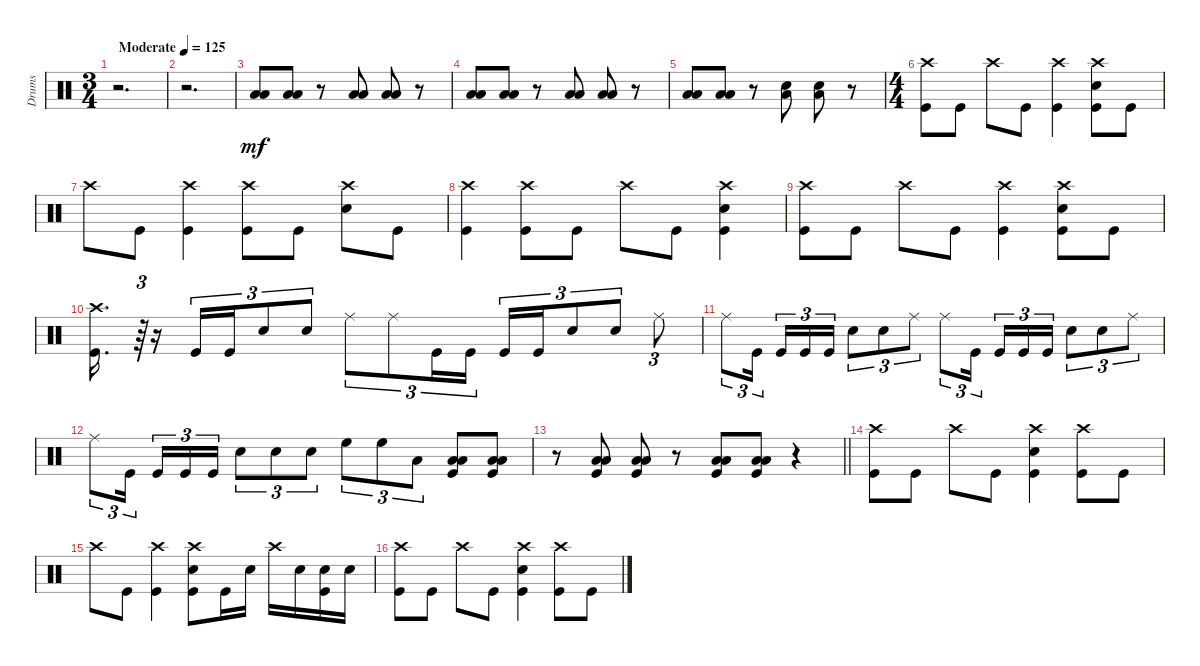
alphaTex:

\track ("Drums" "Drums") {instrument percussion}
\staff {score}
\articulation defaults
\ts (3 4)
\tempo (125 "Moderate")
\clef neutral
\ks c
r.2{d dy mf} |
r.2{d} |
("Low Tom (hit)" "Low Floor Tom (hit)").8 ("Low Tom (hit)" "Low Floor Tom (hit)").8 r.8 ("Low Tom (hit)" "Low Floor Tom (hit)").8 ("Low Tom (hit)" "Low Floor Tom (hit)").8 r.8 |
("Low Tom (hit)" "Low Floor Tom (hit)").8 ("Low Tom (hit)" "Low Floor Tom (hit)").8 r.8 ("Low Tom (hit)" "Low Floor Tom (hit)").8 ("Low Tom (hit)" "Low Floor Tom (hit)").8 r.8 |
("Low Tom (hit)" "Low Floor Tom (hit)").8 ("Low Tom (hit)" "Low Floor Tom (hit)").8 r.8 ("Low Floor Tom (hit)" "Snare (hit) 2").8 ("Low Floor Tom (hit)" "Snare (hit) 2").8 r.8 |
\ts (4 4)
("Kick (hit)" "Crash high (hit)").8 "Kick (hit)".8 "Crash high (hit)".8 "Kick (hit)".8 ("Crash high (hit)" "Kick (hit)").4 ("Kick (hit)" "Snare (hit) 2" "Crash high (hit)").8 "Kick (hit)".8 |
"Crash high (hit)".8 "Kick (hit)".8 ("Crash high (hit)" "Kick (hit)").4 ("Crash high (hit)" "Kick (hit)").8 "Kick (hit)".8 ("Snare (hit) 2" "Crash high (hit)").8 "Kick (hit)".8 |
("Crash high (hit)" "Kick (hit)").4 ("Crash high (hit)" "Kick (hit)").8 "Kick (hit)".8 "Crash high (hit)".8 "Kick (hit)".8 ("Snare (hit) 2" "Crash high (hit)" "Kick (hit)").4 |
("Crash high (hit)" "Kick (hit)").8 "Kick (hit)".8 "Crash high (hit)".8 "Kick (hit)".8 ("Crash high (hit)" "Kick (hit)").4 ("Snare (hit) 2" "Crash high (hit)" "Kick (hit)").8 "Kick (hit)".8 |
("Crash high (hit)" "Kick (hit)").16{d} r.64{tu (3 2)} r.16 "Kick (hit)".16{tu (3 2)} "Kick (hit)".16{tu (3 2)} "Snare (hit) 2".8{tu (3 2)} "Snare (hit) 2".8{tu (3 2)} "Ride (middle)".8{tu (3 2)} "Ride (middle)".8{tu (3 2)} "Kick (hit)".16{tu (3 2)} "Kick (hit)".16{tu (3 2) beam splitsecondary} "Kick (hit)".16{tu (3 2)} "Kick (hit)".16{tu (3 2)} "Snare (hit) 2".8{tu (3 2)} "Snare (hit) 2".8{tu (3 2)} "Ride (middle)".8{tu (3 2)} |
"Ride (middle)".8{tu (3 2)} "Kick (hit)".16{tu (3 2) beam splitsecondary} "Kick (hit)".16{tu (3 2)} "Kick (hit)".16{tu (3 2)} "Kick (hit)".16{tu (3 2)} "Snare (hit) 2".8{tu (3 2)} "Snare (hit) 2".8{tu (3 2)} "Ride (middle)".8{tu (3 2)} "Ride (middle)".8{tu (3 2)} "Kick (hit)".16{tu (3 2) beam splitsecondary} "Kick (hit)".16{tu (3 2)} "Kick (hit)".16{tu (3 2)} "Kick (hit)".16{tu (3 2)} "Snare (hit) 2".8{tu (3 2)} "Snare (hit) 2".8{tu (3 2)} "Ride (middle)".8{tu (3 2)} |
"Ride (middle)".8{tu (3 2)} "Kick (hit)".16{tu (3 2) beam splitsecondary} "Kick (hit)".16{tu (3 2)} "Kick (hit)".16{tu (3 2)} "Kick (hit)".16{tu (3 2)} "Snare (hit) 2".8{tu (3 2)} "Snare (hit) 2".8{tu (3 2)} "Snare (hit) 2".8{tu (3 2)} "High Floor Tom (hit)".8{tu (3 2)} "High Floor Tom (hit)".8{tu (3 2)} "Low Tom (hit)".8{tu (3 2)} ("Kick (hit)" "Low Floor Tom (hit)" "Low Tom (hit)").8 ("Kick (hit)" "Low Floor Tom (hit)" "Low Tom (hit)").8 |
\barLineRight lightlight
r.8 ("Low Floor Tom (hit)" "Low Tom (hit)" "Kick (hit)").8 ("Low Floor Tom (hit)" "Low Tom (hit)" "Kick (hit)").8 r.8 ("Low Floor Tom (hit)" "Low Tom (hit)" "Kick (hit)").8 ("Low Floor Tom (hit)" "Low Tom (hit)" "Kick (hit)").8 r.4 |
("Crash high (hit)" "Kick (hit)").8 "Kick (hit)".8 "Crash high (hit)".8 "Kick (hit)".8 ("Snare (hit) 2" "Crash high (hit)" "Kick (hit)").4 ("Crash high (hit)" "Kick (hit)").8 "Kick (hit)".8 |
"Crash high (hit)".8 "Kick (hit)".8 ("Crash high (hit)" "Kick (hit)").4 ("Snare (hit) 2" "Crash high (hit)" "Kick (hit)").8 "Kick (hit)".16 "Snare (hit) 2".16 "Crash high (hit)".16 "Snare (hit) 2".16 ("Kick (hit)" "Snare (hit) 2").16 "Snare (hit) 2".16 |
("Kick (hit)" "Crash high (hit)").8 "Kick (hit)".8 "Crash high (hit)".8 "Kick (hit)".8 ("Kick (hit)" "Snare (hit) 2" "Crash high (hit)").4 ("Kick (hit)" "Crash high (hit)").8 "Kick (hit)".8
